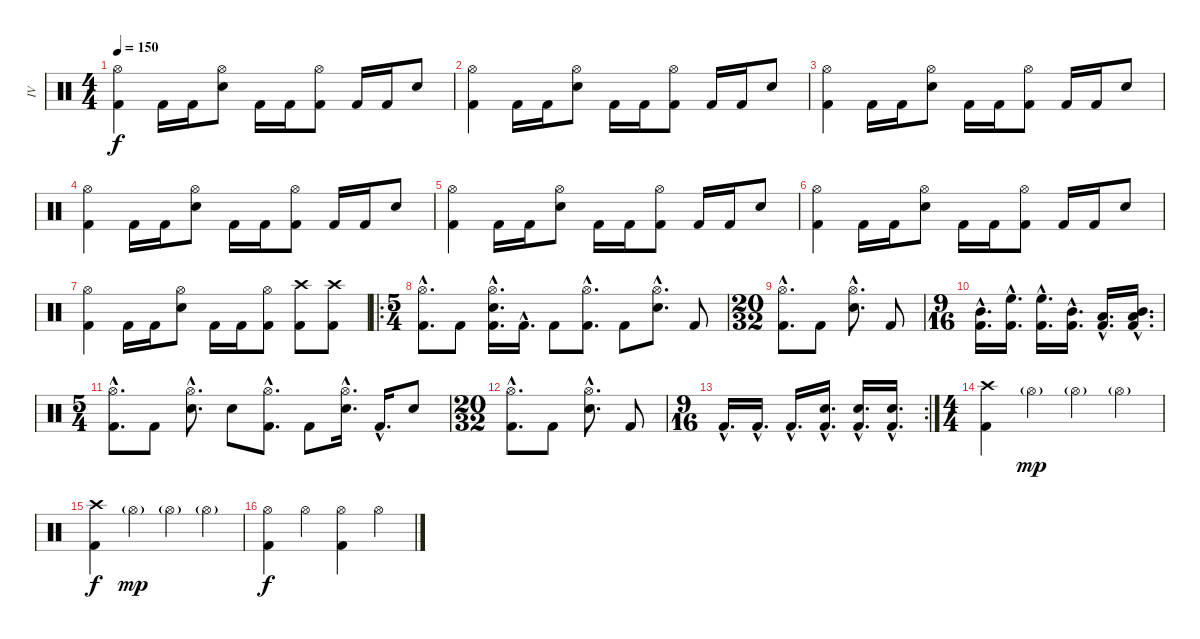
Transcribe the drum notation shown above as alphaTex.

\track ("IV" "IV") {instrument percussion}
\staff {score}
\articulation defaults
\ts (4 4)
\tempo 150
\clef neutral
\ks c
("Hi-Hat (open)" "Kick (hit) 2").4{dy f} "Kick (hit) 2".16 "Kick (hit) 2".16 ("Hi-Hat (open)" "Snare (hit) 2").8 "Kick (hit) 2".16 "Kick (hit) 2".16 ("Hi-Hat (open)" "Kick (hit) 2").8 "Kick (hit) 2".16 "Kick (hit) 2".16 "Snare (hit) 2".8 |
("Hi-Hat (open)" "Kick (hit) 2").4 "Kick (hit) 2".16 "Kick (hit) 2".16 ("Hi-Hat (open)" "Snare (hit) 2").8 "Kick (hit) 2".16 "Kick (hit) 2".16 ("Hi-Hat (open)" "Kick (hit) 2").8 "Kick (hit) 2".16 "Kick (hit) 2".16 "Snare (hit) 2".8 |
("Hi-Hat (open)" "Kick (hit) 2").4 "Kick (hit) 2".16 "Kick (hit) 2".16 ("Hi-Hat (open)" "Snare (hit) 2").8 "Kick (hit) 2".16 "Kick (hit) 2".16 ("Hi-Hat (open)" "Kick (hit) 2").8 "Kick (hit) 2".16 "Kick (hit) 2".16 "Snare (hit) 2".8 |
("Hi-Hat (open)" "Kick (hit) 2").4 "Kick (hit) 2".16 "Kick (hit) 2".16 ("Hi-Hat (open)" "Snare (hit) 2").8 "Kick (hit) 2".16 "Kick (hit) 2".16 ("Hi-Hat (open)" "Kick (hit) 2").8 "Kick (hit) 2".16 "Kick (hit) 2".16 "Snare (hit) 2".8 |
("Hi-Hat (open)" "Kick (hit) 2").4 "Kick (hit) 2".16 "Kick (hit) 2".16 ("Hi-Hat (open)" "Snare (hit) 2").8 "Kick (hit) 2".16 "Kick (hit) 2".16 ("Hi-Hat (open)" "Kick (hit) 2").8 "Kick (hit) 2".16 "Kick (hit) 2".16 "Snare (hit) 2".8 |
("Hi-Hat (open)" "Kick (hit) 2").4 "Kick (hit) 2".16 "Kick (hit) 2".16 ("Hi-Hat (open)" "Snare (hit) 2").8 "Kick (hit) 2".16 "Kick (hit) 2".16 ("Hi-Hat (open)" "Kick (hit) 2").8 "Kick (hit) 2".16 "Kick (hit) 2".16 "Snare (hit) 2".8 |
("Hi-Hat (open)" "Kick (hit) 2").4 "Kick (hit) 2".16 "Kick (hit) 2".16 ("Hi-Hat (open)" "Snare (hit) 2").8 "Kick (hit) 2".16 "Kick (hit) 2".16 ("Hi-Hat (open)" "Kick (hit) 2").8 ("Crash high (hit)" "Kick (hit) 2").8 ("Crash high (hit)" "Kick (hit) 2").8 |
\ro
\ts (5 4)
("Hi-Hat (open)"{hac} "Kick (hit) 2"{hac}).8{d} "Kick (hit) 2".8 ("Hi-Hat (open)"{hac} "Snare (hit) 2"{hac} "Kick (hit) 2"{hac}).16{d} "Kick (hit) 2"{hac}.16{d} "Kick (hit) 2".8 ("Hi-Hat (open)"{hac} "Kick (hit) 2"{hac}).8{d} "Kick (hit) 2".8 ("Hi-Hat (open)"{hac} "Snare (hit) 2"{hac}).8{d} "Kick (hit) 2".8 |
\ts (20 32)
("Hi-Hat (open)"{hac} "Kick (hit) 2"{hac}).8{d} "Kick (hit) 2".8 ("Hi-Hat (open)"{hac} "Snare (hit) 2"{hac}).8{d} "Kick (hit) 2".8 |
\ts (9 16)
("Mid Tom (hit)"{hac} "Kick (hit) 2"{hac}).16{d} ("High Floor Tom (hit)"{hac} "Kick (hit) 2"{hac}).16{d} ("High Floor Tom (hit)"{hac} "Kick (hit) 2"{hac}).16{d} ("Mid Tom (hit)"{hac} "Kick (hit) 2"{hac}).16{d} ("Low Tom (hit)"{hac} "Kick (hit) 2"{hac}).16{d} ("Mid Tom (hit)"{hac} "Low Tom (hit)"{hac} "Kick (hit) 2"{hac}).16{d} |
\ts (5 4)
("Hi-Hat (open)"{hac} "Kick (hit) 2"{hac}).8{d} "Kick (hit) 2".8 ("Hi-Hat (open)"{hac} "Snare (hit) 2"{hac}).8{d} "Snare (hit) 2".8 ("Hi-Hat (open)"{hac} "Kick (hit) 2"{hac}).8{d} "Kick (hit) 2".8 ("Hi-Hat (open)"{hac} "Snare (hit) 2"{hac}).16{d} "Kick (hit) 2"{hac}.16{d} "Snare (hit) 2".8 |
\ts (20 32)
("Hi-Hat (open)"{hac} "Kick (hit) 2"{hac}).8{d} "Kick (hit) 2".8 ("Hi-Hat (open)"{hac} "Snare (hit) 2"{hac}).8{d} "Kick (hit) 2".8 |
\rc 2
\ts (9 16)
"Kick (hit) 2"{hac}.16{d} "Kick (hit) 2"{hac}.16{d} "Kick (hit) 2"{hac}.16{d} ("Snare (hit) 2"{hac} "Kick (hit) 2"{hac}).16{d} ("Snare (hit) 2"{hac} "Kick (hit) 2"{hac}).16{d} ("Snare (hit) 2"{hac} "Kick (hit) 2"{hac}).16{d} |
\ts (4 4)
("Crash high (hit)" "Kick (hit) 2").4 "Hi-Hat (open)"{g}.4{dy mp} "Hi-Hat (open)"{g}.4 "Hi-Hat (open)"{g}.4 |
("Crash high (hit)" "Kick (hit) 2").4{dy f} "Hi-Hat (open)"{g}.4{dy mp} "Hi-Hat (open)"{g}.4 "Hi-Hat (open)"{g}.4 |
("Hi-Hat (open)" "Kick (hit) 2").4{dy f} "Hi-Hat (open)".4 ("Hi-Hat (open)" "Kick (hit) 2").4 "Hi-Hat (open)".4
